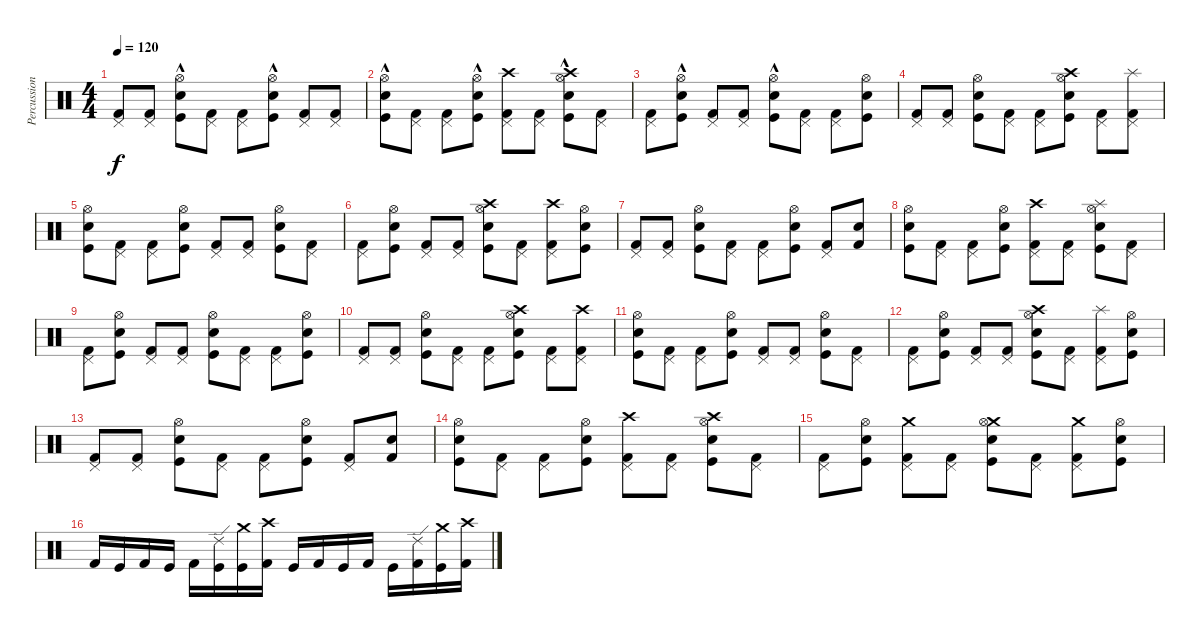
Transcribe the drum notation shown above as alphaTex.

\track ("Percussion" "Percussion") {instrument percussion}
\staff {score}
\articulation defaults
\ts (4 4)
\tempo 120
\clef neutral
\ks c
("Pedal Hi-Hat (hit)" "Kick (hit) 2").8{dy f} ("Pedal Hi-Hat (hit)" "Kick (hit) 2").8 ("Hi-Hat (open)"{hac} "Electric Snare (hit)" "Kick (hit)").8 ("Pedal Hi-Hat (hit)" "Kick (hit) 2").8 ("Pedal Hi-Hat (hit)" "Kick (hit) 2").8 ("Hi-Hat (open)"{hac} "Electric Snare (hit)" "Kick (hit)").8 ("Pedal Hi-Hat (hit)" "Kick (hit) 2").8 ("Pedal Hi-Hat (hit)" "Kick (hit) 2").8 |
("Hi-Hat (open)"{hac} "Electric Snare (hit)" "Kick (hit)").8 ("Pedal Hi-Hat (hit)" "Kick (hit) 2").8 ("Pedal Hi-Hat (hit)" "Kick (hit) 2").8 ("Hi-Hat (open)"{hac} "Electric Snare (hit)" "Kick (hit)").8 ("Crash high (hit)" "Pedal Hi-Hat (hit)" "Kick (hit) 2").8 ("Pedal Hi-Hat (hit)" "Kick (hit) 2").8 ("Crash high (hit)" "Hi-Hat (open)"{hac} "Electric Snare (hit)" "Kick (hit)").8 ("Pedal Hi-Hat (hit)" "Kick (hit) 2").8 |
("Pedal Hi-Hat (hit)" "Kick (hit) 2").8 ("Hi-Hat (open)"{hac} "Electric Snare (hit)" "Kick (hit)").8 ("Pedal Hi-Hat (hit)" "Kick (hit) 2").8 ("Pedal Hi-Hat (hit)" "Kick (hit) 2").8 ("Hi-Hat (open)"{hac} "Electric Snare (hit)" "Kick (hit)").8 ("Pedal Hi-Hat (hit)" "Kick (hit) 2").8 ("Pedal Hi-Hat (hit)" "Kick (hit) 2").8 ("Hi-Hat (open)" "Electric Snare (hit)" "Kick (hit)").8 |
("Pedal Hi-Hat (hit)" "Kick (hit) 2").8 ("Pedal Hi-Hat (hit)" "Kick (hit) 2").8 ("Hi-Hat (open)" "Electric Snare (hit)" "Kick (hit)").8 ("Pedal Hi-Hat (hit)" "Kick (hit) 2").8 ("Pedal Hi-Hat (hit)" "Kick (hit) 2").8 ("Crash high (hit)" "Hi-Hat (open)" "Electric Snare (hit)" "Kick (hit)").8 ("Pedal Hi-Hat (hit)" "Kick (hit) 2").8 ("Splash (hit)" "Pedal Hi-Hat (hit)" "Kick (hit) 2").8 |
("Hi-Hat (open)" "Electric Snare (hit)" "Kick (hit)").8 ("Pedal Hi-Hat (hit)" "Kick (hit) 2").8 ("Pedal Hi-Hat (hit)" "Kick (hit) 2").8 ("Hi-Hat (open)" "Electric Snare (hit)" "Kick (hit)").8 ("Pedal Hi-Hat (hit)" "Kick (hit) 2").8 ("Pedal Hi-Hat (hit)" "Kick (hit) 2").8 ("Hi-Hat (open)" "Electric Snare (hit)" "Kick (hit)").8 ("Pedal Hi-Hat (hit)" "Kick (hit) 2").8 |
("Pedal Hi-Hat (hit)" "Kick (hit) 2").8 ("Hi-Hat (open)" "Electric Snare (hit)" "Kick (hit)").8 ("Pedal Hi-Hat (hit)" "Kick (hit) 2").8 ("Pedal Hi-Hat (hit)" "Kick (hit) 2").8 ("Crash high (hit)" "Hi-Hat (open)" "Electric Snare (hit)" "Kick (hit)").8 ("Pedal Hi-Hat (hit)" "Kick (hit) 2").8 ("Crash high (hit)" "Pedal Hi-Hat (hit)" "Kick (hit) 2").8 ("Hi-Hat (open)" "Electric Snare (hit)" "Kick (hit)").8 |
("Pedal Hi-Hat (hit)" "Kick (hit) 2").8 ("Pedal Hi-Hat (hit)" "Kick (hit) 2").8 ("Hi-Hat (open)" "Electric Snare (hit)" "Kick (hit)").8 ("Pedal Hi-Hat (hit)" "Kick (hit) 2").8 ("Pedal Hi-Hat (hit)" "Kick (hit) 2").8 ("Hi-Hat (open)" "Electric Snare (hit)" "Kick (hit)").8 ("Pedal Hi-Hat (hit)" "Kick (hit) 2").8 ("Snare (hit)" "Kick (hit) 2").8 |
("Hi-Hat (open)" "Electric Snare (hit)" "Kick (hit)").8 ("Pedal Hi-Hat (hit)" "Kick (hit) 2").8 ("Pedal Hi-Hat (hit)" "Kick (hit) 2").8 ("Hi-Hat (open)" "Electric Snare (hit)" "Kick (hit)").8 ("Crash high (hit)" "Pedal Hi-Hat (hit)" "Kick (hit) 2").8 ("Pedal Hi-Hat (hit)" "Kick (hit) 2").8 ("Splash (hit)" "Hi-Hat (open)" "Electric Snare (hit)" "Kick (hit)").8 ("Pedal Hi-Hat (hit)" "Kick (hit) 2").8 |
("Pedal Hi-Hat (hit)" "Kick (hit) 2").8 ("Hi-Hat (open)" "Electric Snare (hit)" "Kick (hit)").8 ("Pedal Hi-Hat (hit)" "Kick (hit) 2").8 ("Pedal Hi-Hat (hit)" "Kick (hit) 2").8 ("Hi-Hat (open)" "Electric Snare (hit)" "Kick (hit)").8 ("Pedal Hi-Hat (hit)" "Kick (hit) 2").8 ("Pedal Hi-Hat (hit)" "Kick (hit) 2").8 ("Hi-Hat (open)" "Electric Snare (hit)" "Kick (hit)").8 |
("Pedal Hi-Hat (hit)" "Kick (hit) 2").8 ("Pedal Hi-Hat (hit)" "Kick (hit) 2").8 ("Hi-Hat (open)" "Electric Snare (hit)" "Kick (hit)").8 ("Pedal Hi-Hat (hit)" "Kick (hit) 2").8 ("Pedal Hi-Hat (hit)" "Kick (hit) 2").8 ("Crash high (hit)" "Hi-Hat (open)" "Electric Snare (hit)" "Kick (hit)").8 ("Pedal Hi-Hat (hit)" "Kick (hit) 2").8 ("Crash high (hit)" "Pedal Hi-Hat (hit)" "Kick (hit) 2").8 |
("Hi-Hat (open)" "Electric Snare (hit)" "Kick (hit)").8 ("Pedal Hi-Hat (hit)" "Kick (hit) 2").8 ("Pedal Hi-Hat (hit)" "Kick (hit) 2").8 ("Hi-Hat (open)" "Electric Snare (hit)" "Kick (hit)").8 ("Pedal Hi-Hat (hit)" "Kick (hit) 2").8 ("Pedal Hi-Hat (hit)" "Kick (hit) 2").8 ("Hi-Hat (open)" "Electric Snare (hit)" "Kick (hit)").8 ("Pedal Hi-Hat (hit)" "Kick (hit) 2").8 |
("Pedal Hi-Hat (hit)" "Kick (hit) 2").8 ("Hi-Hat (open)" "Electric Snare (hit)" "Kick (hit)").8 ("Pedal Hi-Hat (hit)" "Kick (hit) 2").8 ("Pedal Hi-Hat (hit)" "Kick (hit) 2").8 ("Crash high (hit)" "Hi-Hat (open)" "Electric Snare (hit)" "Kick (hit)").8 ("Pedal Hi-Hat (hit)" "Kick (hit) 2").8 ("Splash (hit)" "Pedal Hi-Hat (hit)" "Kick (hit) 2").8 ("Hi-Hat (open)" "Electric Snare (hit)" "Kick (hit)").8 |
("Pedal Hi-Hat (hit)" "Kick (hit) 2").8 ("Pedal Hi-Hat (hit)" "Kick (hit) 2").8 ("Hi-Hat (open)" "Electric Snare (hit)" "Kick (hit)").8 ("Pedal Hi-Hat (hit)" "Kick (hit) 2").8 ("Pedal Hi-Hat (hit)" "Kick (hit) 2").8 ("Hi-Hat (open)" "Electric Snare (hit)" "Kick (hit)").8 ("Pedal Hi-Hat (hit)" "Kick (hit) 2").8 ("Electric Snare (hit)" "Kick (hit) 2").8 |
("Hi-Hat (open)" "Electric Snare (hit)" "Kick (hit)").8 ("Pedal Hi-Hat (hit)" "Kick (hit) 2").8 ("Pedal Hi-Hat (hit)" "Kick (hit) 2").8 ("Hi-Hat (open)" "Electric Snare (hit)" "Kick (hit)").8 ("Crash high (hit)" "Pedal Hi-Hat (hit)" "Kick (hit) 2").8 ("Pedal Hi-Hat (hit)" "Kick (hit) 2").8 ("Crash high (hit)" "Hi-Hat (open)" "Electric Snare (hit)" "Kick (hit)").8 ("Pedal Hi-Hat (hit)" "Kick (hit) 2").8 |
("Pedal Hi-Hat (hit)" "Kick (hit) 2").8 ("Hi-Hat (open)" "Electric Snare (hit)" "Kick (hit)").8 ("Crash medium (hit)" "Pedal Hi-Hat (hit)" "Kick (hit) 2").8 ("Pedal Hi-Hat (hit)" "Kick (hit) 2").8 ("Crash medium (hit)" "Hi-Hat (open)" "Electric Snare (hit)" "Kick (hit)").8 ("Pedal Hi-Hat (hit)" "Kick (hit) 2").8 ("Crash medium (hit)" "Pedal Hi-Hat (hit)" "Kick (hit) 2").8 ("Hi-Hat (open)" "Electric Snare (hit)" "Kick (hit)").8 |
"Kick (hit) 2".16 "Kick (hit)".16 "Kick (hit) 2".16 "Kick (hit)".16 "Kick (hit) 2".16 ("Ride (edge) 2" "Kick (hit)").16 ("Crash medium (hit)" "Kick (hit)").16 ("Crash high (hit)" "Kick (hit) 2").16 "Kick (hit)".16 "Kick (hit) 2".16 "Kick (hit)".16 "Kick (hit) 2".16 "Kick (hit)".16 ("Ride (edge) 2" "Kick (hit) 2").16 ("Crash medium (hit)" "Kick (hit)").16 ("Crash high (hit)" "Kick (hit) 2").16
